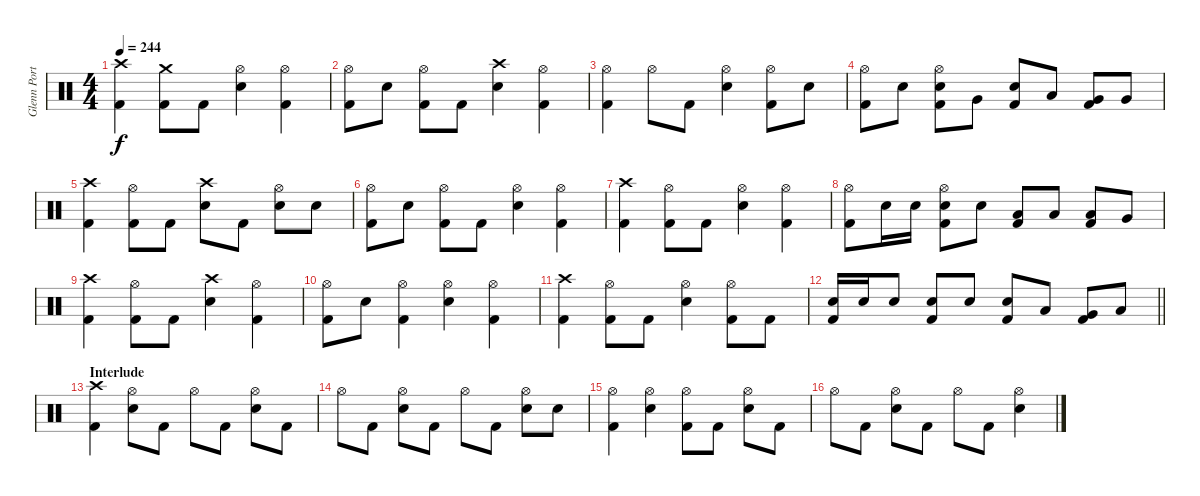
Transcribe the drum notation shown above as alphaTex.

\track ("Glenn Porter - Drums" "Glenn Port") {instrument percussion}
\staff {score}
\articulation defaults
\ts (4 4)
\tempo 244
\clef neutral
\ks c
("Kick (hit) 2" "Crash high (hit)").4{dy f} ("Kick (hit) 2" "Crash medium (hit)").8 "Kick (hit) 2".8 ("Snare (hit) 2" "Hi-Hat (open)").4 ("Kick (hit) 2" "Hi-Hat (open)").4 |
("Kick (hit) 2" "Hi-Hat (open)").8 "Snare (hit) 2".8 ("Kick (hit) 2" "Hi-Hat (open)").8 "Kick (hit) 2".8 ("Snare (hit) 2" "Crash high (hit)").4 ("Kick (hit) 2" "Hi-Hat (open)").4 |
("Kick (hit) 2" "Hi-Hat (open)").4 "Hi-Hat (open)".8 "Kick (hit) 2".8 ("Snare (hit) 2" "Hi-Hat (open)").4 ("Kick (hit) 2" "Hi-Hat (open)").8 "Snare (hit) 2".8 |
("Kick (hit) 2" "Hi-Hat (open)").8 "Snare (hit) 2".8 ("Snare (hit) 2" "Hi-Hat (open)" "Kick (hit) 2").8 "Very Low Tom (hit)".8 ("Snare (hit) 2" "Kick (hit) 2").8 "Low Tom (hit)".8 ("Very Low Tom (hit)" "Kick (hit) 2").8 "Very Low Tom (hit)".8 |
("Crash high (hit)" "Kick (hit) 2").4 ("Kick (hit) 2" "Hi-Hat (open)").8 "Kick (hit) 2".8 ("Crash high (hit)" "Snare (hit) 2").8 "Kick (hit) 2".8 ("Hi-Hat (open)" "Snare (hit) 2").8 "Snare (hit) 2".8 |
("Kick (hit) 2" "Hi-Hat (open)").8 "Snare (hit) 2".8 ("Kick (hit) 2" "Hi-Hat (open)").8 "Kick (hit) 2".8 ("Snare (hit) 2" "Hi-Hat (open)").4 ("Kick (hit) 2" "Hi-Hat (open)").4 |
("Kick (hit) 2" "Crash high (hit)").4 ("Kick (hit) 2" "Hi-Hat (open)").8 "Kick (hit) 2".8 ("Snare (hit) 2" "Hi-Hat (open)").4 ("Kick (hit) 2" "Hi-Hat (open)").4 |
("Kick (hit) 2" "Hi-Hat (open)").8 "Snare (hit) 2".16 "Snare (hit) 2".16 ("Snare (hit) 2" "Kick (hit) 2" "Hi-Hat (open)").8 "Snare (hit) 2".8 ("Low Tom (hit)" "Kick (hit) 2").8 "Low Tom (hit)".8 ("Low Tom (hit)" "Kick (hit) 2").8 "Very Low Tom (hit)".8 |
("Crash high (hit)" "Kick (hit) 2").4 ("Kick (hit) 2" "Hi-Hat (open)").8 "Kick (hit) 2".8 ("Snare (hit) 2" "Crash high (hit)").4 ("Kick (hit) 2" "Hi-Hat (open)").4 |
("Kick (hit) 2" "Hi-Hat (open)").8 "Snare (hit) 2".8 ("Kick (hit) 2" "Hi-Hat (open)").4 ("Snare (hit) 2" "Hi-Hat (open)").4 ("Kick (hit) 2" "Hi-Hat (open)").4 |
("Crash high (hit)" "Kick (hit) 2").4 ("Kick (hit) 2" "Hi-Hat (open)").8 "Kick (hit) 2".8 ("Snare (hit) 2" "Hi-Hat (open)").4 ("Kick (hit) 2" "Hi-Hat (open)").8 "Kick (hit) 2".8 |
\barLineRight lightlight
("Snare (hit) 2" "Kick (hit) 2").16 "Snare (hit) 2".16 "Snare (hit) 2".8 ("Snare (hit) 2" "Kick (hit) 2").8 "Snare (hit) 2".8 ("Snare (hit) 2" "Kick (hit) 2").8 "Low Tom (hit)".8 ("Very Low Tom (hit)" "Kick (hit) 2").8 "Low Floor Tom (hit)".8 |
\section ("" "Interlude")
("Kick (hit) 2" "Crash high (hit)").4 ("Snare (hit) 2" "Hi-Hat (open)").8 "Kick (hit) 2".8 "Hi-Hat (open)".8 "Kick (hit) 2".8 ("Snare (hit) 2" "Hi-Hat (open)").8 "Kick (hit) 2".8 |
"Hi-Hat (open)".8 "Kick (hit) 2".8 ("Snare (hit) 2" "Hi-Hat (open)").8 "Kick (hit) 2".8 "Hi-Hat (open)".8 "Kick (hit) 2".8 ("Snare (hit) 2" "Hi-Hat (open)").8 "Snare (hit) 2".8 |
("Kick (hit) 2" "Hi-Hat (open)").4 ("Snare (hit) 2" "Hi-Hat (open)").4 ("Hi-Hat (open)" "Kick (hit) 2").8 "Kick (hit) 2".8 ("Snare (hit) 2" "Hi-Hat (open)").8 "Kick (hit) 2".8 |
"Hi-Hat (open)".8 "Kick (hit) 2".8 ("Snare (hit) 2" "Hi-Hat (open)").8 "Kick (hit) 2".8 "Hi-Hat (open)".8 "Kick (hit) 2".8 ("Snare (hit) 2" "Hi-Hat (open)").4
